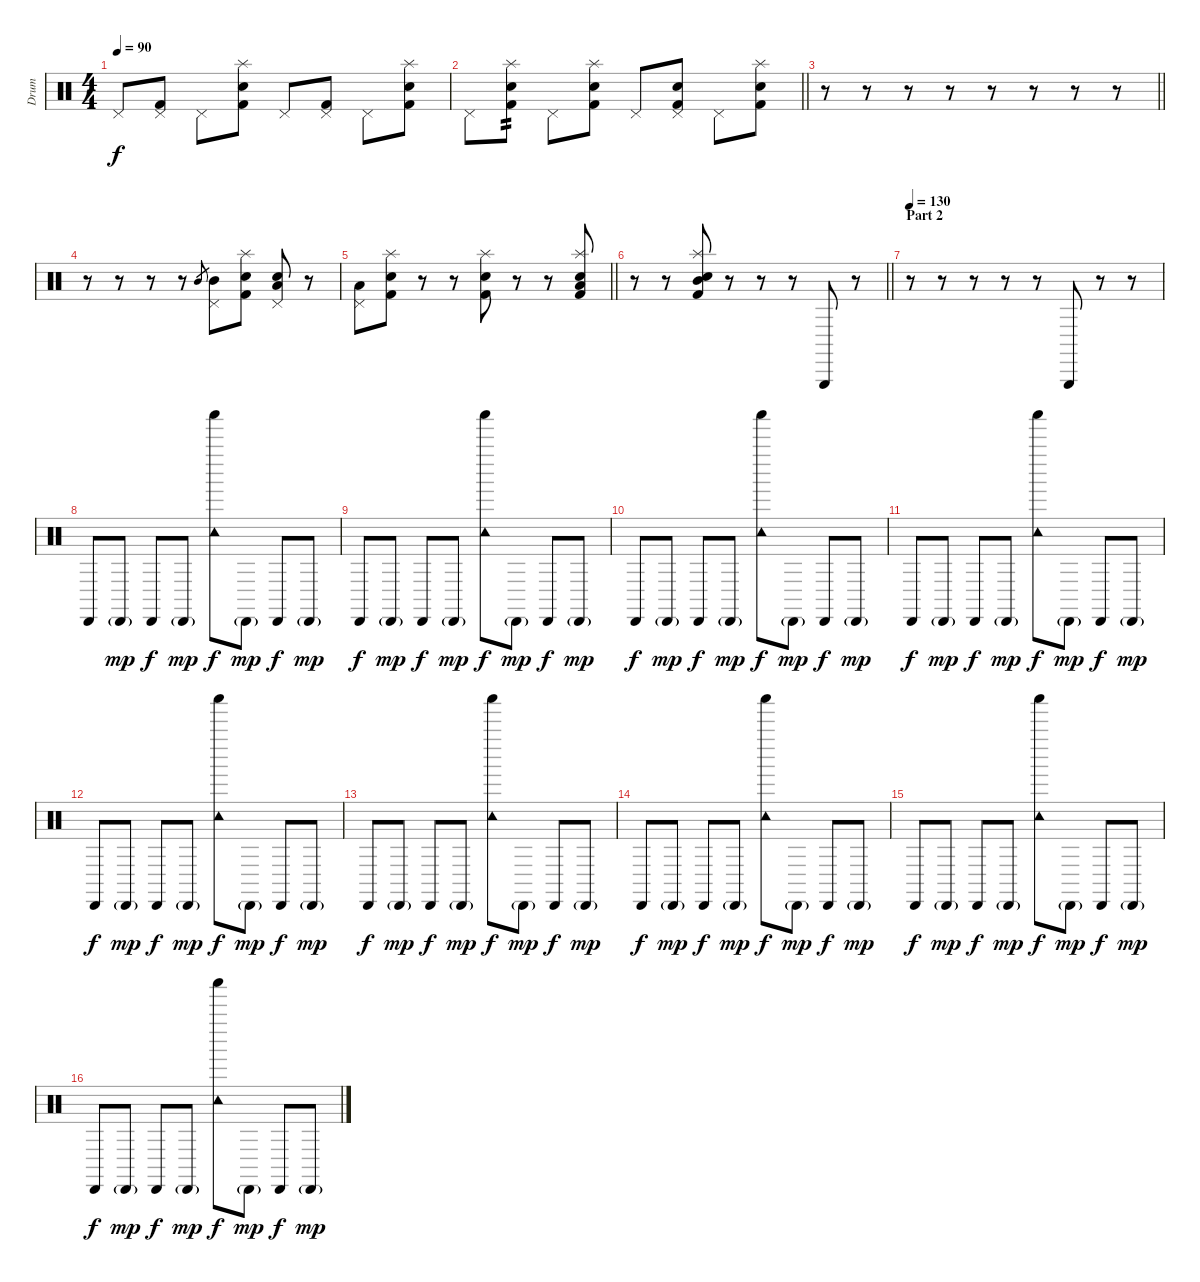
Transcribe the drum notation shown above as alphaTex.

\track ("Drum" "Drum") {instrument percussion}
\staff {score}
\articulation defaults
\ts (4 4)
\tempo 90
\clef neutral
\ks c "Pedal Hi-Hat (hit)".8{dy f}
("Kick (hit) 2" "Pedal Hi-Hat (hit)").8 "Pedal Hi-Hat (hit)".8 ("Electric Snare (hit)" "Kick (hit) 2" "Splash (hit)").8 "Pedal Hi-Hat (hit)".8 ("Kick (hit) 2" "Pedal Hi-Hat (hit)").8 "Pedal Hi-Hat (hit)".8 ("Electric Snare (hit)" "Kick (hit) 2" "Splash (hit)").8 |
\barLineRight lightlight "Pedal Hi-Hat (hit)".8
("Electric Snare (hit)" "Kick (hit) 2" "Splash (hit)").8{tp 2} "Pedal Hi-Hat (hit)".8 ("Electric Snare (hit)" "Kick (hit) 2" "Splash (hit)").8 "Pedal Hi-Hat (hit)".8 ("Electric Snare (hit)" "Kick (hit) 2" "Pedal Hi-Hat (hit)").8 "Pedal Hi-Hat (hit)".8 ("Electric Snare (hit)" "Kick (hit) 2" "Splash (hit)").8 |
\barLineRight lightlight
r.8 r.8 r.8 r.8 r.8 r.8 r.8 r.8 |
r.8 r.8 r.8 r.8 "Mid Tom (hit)".8{gr} ("Mid Tom (hit)" "Pedal Hi-Hat (hit)").8 ("Electric Snare (hit)" "Kick (hit) 2" "Splash (hit)").8 ("Electric Snare (hit)" "Low Tom (hit)" "Pedal Hi-Hat (hit)").8 r.8 |
\barLineRight lightlight
("Low Tom (hit)" "Pedal Hi-Hat (hit)").8 ("Electric Snare (hit)" "Kick (hit) 2" "Splash (hit)").8 r.8 r.8 ("Electric Snare (hit)" "Kick (hit) 2" "Splash (hit)").8 r.8 r.8 ("Electric Snare (hit)" "Low Tom (hit)" "Kick (hit) 2" "Splash (hit)").8 |
\barLineRight lightlight
r.8 r.8 ("Electric Snare (hit)" "Mid Tom (hit)" "Kick (hit) 2" "Splash (hit)").8 r.8 r.8 r.8 "Triangle (hit)".8 r.8 |
\section ("" "Part 2")
\tempo 130
r.8 r.8 r.8 r.8 r.8 "Triangle (hit)".8 r.8 r.8 |
"Cabasa (hit)".8 "Cabasa (hit)"{g}.8{dy mp} "Cabasa (hit)".8{dy f} "Cabasa (hit)"{g}.8{dy mp} ("Shaker (hit)" "Tambourine (hit)").8{dy f} "Cabasa (hit)"{g}.8{dy mp} "Cabasa (hit)".8{dy f} "Cabasa (hit)"{g}.8{dy mp} |
"Cabasa (hit)".8{dy f} "Cabasa (hit)"{g}.8{dy mp} "Cabasa (hit)".8{dy f} "Cabasa (hit)"{g}.8{dy mp} ("Shaker (hit)" "Tambourine (hit)").8{dy f} "Cabasa (hit)"{g}.8{dy mp} "Cabasa (hit)".8{dy f} "Cabasa (hit)"{g}.8{dy mp} |
"Cabasa (hit)".8{dy f} "Cabasa (hit)"{g}.8{dy mp} "Cabasa (hit)".8{dy f} "Cabasa (hit)"{g}.8{dy mp} ("Shaker (hit)" "Tambourine (hit)").8{dy f} "Cabasa (hit)"{g}.8{dy mp} "Cabasa (hit)".8{dy f} "Cabasa (hit)"{g}.8{dy mp} |
"Cabasa (hit)".8{dy f} "Cabasa (hit)"{g}.8{dy mp} "Cabasa (hit)".8{dy f} "Cabasa (hit)"{g}.8{dy mp} ("Shaker (hit)" "Tambourine (hit)").8{dy f} "Cabasa (hit)"{g}.8{dy mp} "Cabasa (hit)".8{dy f} "Cabasa (hit)"{g}.8{dy mp} |
"Cabasa (hit)".8{dy f} "Cabasa (hit)"{g}.8{dy mp} "Cabasa (hit)".8{dy f} "Cabasa (hit)"{g}.8{dy mp} ("Shaker (hit)" "Tambourine (hit)").8{dy f} "Cabasa (hit)"{g}.8{dy mp} "Cabasa (hit)".8{dy f} "Cabasa (hit)"{g}.8{dy mp} |
"Cabasa (hit)".8{dy f} "Cabasa (hit)"{g}.8{dy mp} "Cabasa (hit)".8{dy f} "Cabasa (hit)"{g}.8{dy mp} ("Shaker (hit)" "Tambourine (hit)").8{dy f} "Cabasa (hit)"{g}.8{dy mp} "Cabasa (hit)".8{dy f} "Cabasa (hit)"{g}.8{dy mp} |
"Cabasa (hit)".8{dy f} "Cabasa (hit)"{g}.8{dy mp} "Cabasa (hit)".8{dy f} "Cabasa (hit)"{g}.8{dy mp} ("Shaker (hit)" "Tambourine (hit)").8{dy f} "Cabasa (hit)"{g}.8{dy mp} "Cabasa (hit)".8{dy f} "Cabasa (hit)"{g}.8{dy mp} |
"Cabasa (hit)".8{dy f} "Cabasa (hit)"{g}.8{dy mp} "Cabasa (hit)".8{dy f} "Cabasa (hit)"{g}.8{dy mp} ("Shaker (hit)" "Tambourine (hit)").8{dy f} "Cabasa (hit)"{g}.8{dy mp} "Cabasa (hit)".8{dy f} "Cabasa (hit)"{g}.8{dy mp} |
"Cabasa (hit)".8{dy f} "Cabasa (hit)"{g}.8{dy mp} "Cabasa (hit)".8{dy f} "Cabasa (hit)"{g}.8{dy mp} ("Shaker (hit)" "Tambourine (hit)").8{dy f} "Cabasa (hit)"{g}.8{dy mp} "Cabasa (hit)".8{dy f} "Cabasa (hit)"{g}.8{dy mp}
